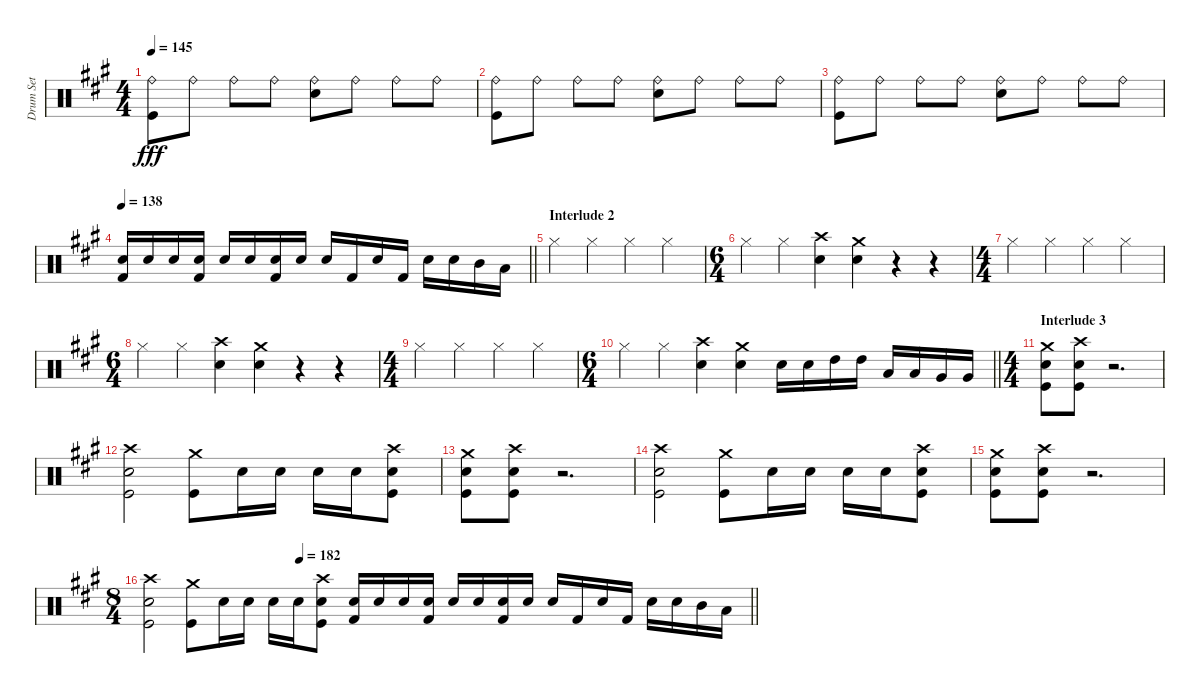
\track ("Drum Set" "Drum Set") {instrument percussion}
\staff {score}
\articulation defaults
\ts (4 4)
\tempo 145
\clef neutral
\ks a
("Ride (bell)" "Kick (hit)").8{dy fff} "Ride (bell)".8 "Ride (bell)".8 "Ride (bell)".8 ("Ride (bell)" "Electric Snare (hit)").8 "Ride (bell)".8 "Ride (bell)".8 "Ride (bell)".8 |
("Ride (bell)" "Kick (hit)").8 "Ride (bell)".8 "Ride (bell)".8 "Ride (bell)".8 ("Ride (bell)" "Electric Snare (hit)").8 "Ride (bell)".8 "Ride (bell)".8 "Ride (bell)".8 |
("Ride (bell)" "Kick (hit)").8 "Ride (bell)".8 "Ride (bell)".8 "Ride (bell)".8 ("Ride (bell)" "Electric Snare (hit)").8 "Ride (bell)".8 "Ride (bell)".8 "Ride (bell)".8 |
\tempo 138
\barLineRight lightlight
("Kick (hit) 2" "Electric Snare (hit)").16 "Electric Snare (hit)".16 "Electric Snare (hit)".16 ("Kick (hit) 2" "Electric Snare (hit)").16 "Electric Snare (hit)".16 "Electric Snare (hit)".16 ("Kick (hit) 2" "Electric Snare (hit)").16 "Electric Snare (hit)".16 "Electric Snare (hit)".16 "Kick (hit) 2".16 "Electric Snare (hit)".16 "Kick (hit) 2".16 "Electric Snare (hit)".16 "Electric Snare (hit)".16 "Mid Tom (hit)".16 "Low Tom (hit)".16 |
\section ("" "Interlude 2")
"Hi-Hat (closed)".4 "Hi-Hat (closed)".4 "Hi-Hat (closed)".4 "Hi-Hat (closed)".4 |
\ts (6 4)
"Hi-Hat (closed)".4 "Hi-Hat (closed)".4 ("Crash high (hit)" "Electric Snare (hit)").4 ("Crash medium (hit)" "Electric Snare (hit)").4 r.4 r.4 |
\ts (4 4)
"Hi-Hat (closed)".4 "Hi-Hat (closed)".4 "Hi-Hat (closed)".4 "Hi-Hat (closed)".4 |
\ts (6 4)
"Hi-Hat (closed)".4 "Hi-Hat (closed)".4 ("Crash high (hit)" "Electric Snare (hit)").4 ("Crash medium (hit)" "Electric Snare (hit)").4 r.4 r.4 |
\ts (4 4)
"Hi-Hat (closed)".4 "Hi-Hat (closed)".4 "Hi-Hat (closed)".4 "Hi-Hat (closed)".4 |
\ts (6 4)
\barLineRight lightlight "Hi-Hat (closed)".4 "Hi-Hat (closed)".4
("Crash high (hit)" "Electric Snare (hit)").4 ("Crash medium (hit)" "Electric Snare (hit)").4 "Electric Snare (hit)".16 "Electric Snare (hit)".16 "High Tom (hit)".16 "High Tom (hit)".16 "Low Tom (hit)".16 "Low Tom (hit)".16 "Very Low Tom (hit)".16 "Very Low Tom (hit)".16 |
\ts (4 4)
\section ("" "Interlude 3")
("Electric Snare (hit)" "Crash medium (hit)" "Kick (hit)").8 ("Electric Snare (hit)" "Crash high (hit)" "Kick (hit)").8 r.2{d} |
("Electric Snare (hit)" "Crash high (hit)" "Kick (hit)").2 ("Crash medium (hit)" "Kick (hit)").8 "Electric Snare (hit)".16 "Electric Snare (hit)".16 "Electric Snare (hit)".16 "Electric Snare (hit)".16 ("Crash high (hit)" "Electric Snare (hit)" "Kick (hit)").8 |
("Electric Snare (hit)" "Crash medium (hit)" "Kick (hit)").8 ("Electric Snare (hit)" "Crash high (hit)" "Kick (hit)").8 r.2{d} |
("Electric Snare (hit)" "Crash high (hit)" "Kick (hit)").2 ("Crash medium (hit)" "Kick (hit)").8 "Electric Snare (hit)".16 "Electric Snare (hit)".16 "Electric Snare (hit)".16 "Electric Snare (hit)".16 ("Crash high (hit)" "Electric Snare (hit)" "Kick (hit)").8 |
("Electric Snare (hit)" "Crash medium (hit)" "Kick (hit)").8 ("Electric Snare (hit)" "Crash high (hit)" "Kick (hit)").8 r.2{d} |
\ts (8 4)
\tempo (182 0.25)
\barLineRight lightlight
("Electric Snare (hit)" "Crash high (hit)" "Kick (hit)").2 ("Crash medium (hit)" "Kick (hit)").8 "Electric Snare (hit)".16 "Electric Snare (hit)".16 "Electric Snare (hit)".16 "Electric Snare (hit)".16 ("Crash high (hit)" "Electric Snare (hit)" "Kick (hit)").8 ("Kick (hit) 2" "Electric Snare (hit)").16 "Electric Snare (hit)".16 "Electric Snare (hit)".16 ("Kick (hit) 2" "Electric Snare (hit)").16 "Electric Snare (hit)".16 "Electric Snare (hit)".16 ("Kick (hit) 2" "Electric Snare (hit)").16 "Electric Snare (hit)".16 "Electric Snare (hit)".16 "Kick (hit) 2".16 "Electric Snare (hit)".16 "Kick (hit) 2".16 "Electric Snare (hit)".16 "Electric Snare (hit)".16 "Mid Tom (hit)".16 "Low Tom (hit)".16
